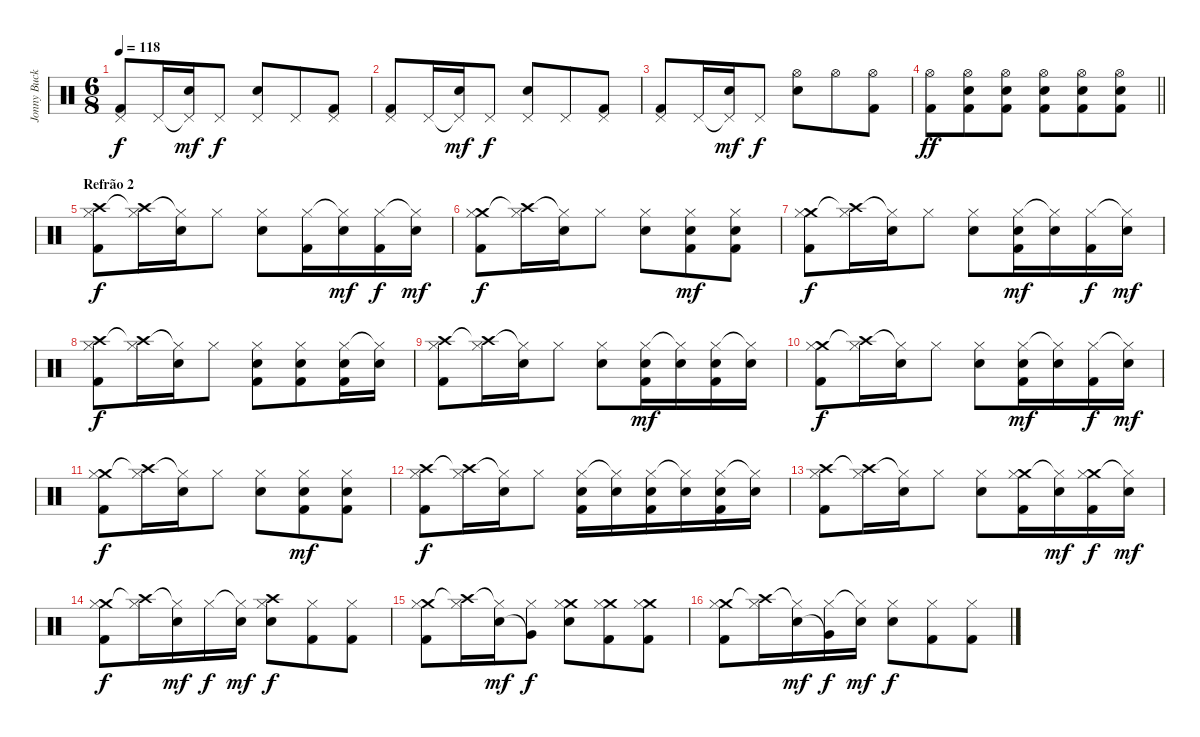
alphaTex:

\track ("Jonny Buckland (batera)" "Jonny Buck") {instrument percussion}
\staff {score}
\articulation defaults
\ts (6 8)
\tempo 118
\clef neutral
\ks c
("Pedal Hi-Hat (hit)" "Kick (hit) 2").8{dy f} "Pedal Hi-Hat (hit)".16 ("Pedal Hi-Hat (hit)"{t} "Snare (hit) 2").16{dy mf} "Pedal Hi-Hat (hit)".8{dy f} ("Pedal Hi-Hat (hit)" "Electric Snare (hit)").8 "Pedal Hi-Hat (hit)".8 ("Pedal Hi-Hat (hit)" "Kick (hit) 2").8 |
("Pedal Hi-Hat (hit)" "Kick (hit) 2").8 "Pedal Hi-Hat (hit)".16 ("Pedal Hi-Hat (hit)"{t} "Snare (hit) 2").16{dy mf} "Pedal Hi-Hat (hit)".8{dy f} ("Pedal Hi-Hat (hit)" "Electric Snare (hit)").8 "Pedal Hi-Hat (hit)".8 ("Pedal Hi-Hat (hit)" "Kick (hit) 2").8 |
("Pedal Hi-Hat (hit)" "Kick (hit) 2").8 "Pedal Hi-Hat (hit)".16 ("Pedal Hi-Hat (hit)"{t} "Snare (hit) 2").16{dy mf} "Pedal Hi-Hat (hit)".8{dy f} ("Hi-Hat (open)" "Electric Snare (hit)").8 "Hi-Hat (open)".8 ("Hi-Hat (open)" "Kick (hit) 2").8 |
\barLineRight lightlight
("Hi-Hat (open)" "Kick (hit) 2").8{dy ff} ("Hi-Hat (open)" "Electric Snare (hit)" "Kick (hit) 2").8 ("Hi-Hat (open)" "Electric Snare (hit)" "Kick (hit) 2").8 ("Hi-Hat (open)" "Electric Snare (hit)" "Kick (hit) 2").8 ("Hi-Hat (open)" "Electric Snare (hit)" "Kick (hit) 2").8 ("Hi-Hat (open)" "Electric Snare (hit)" "Kick (hit) 2").8 |
\section ("" "Refrão 2")
("Crash high (hit)" "Hi-Hat (closed)" "Kick (hit) 2").8{dy f} ("Crash high (hit)"{t} "Hi-Hat (closed)").16 ("Hi-Hat (closed)"{t} "Electric Snare (hit)").16 "Hi-Hat (closed)".8 ("Hi-Hat (closed)" "Electric Snare (hit)").8 ("Hi-Hat (closed)" "Kick (hit) 2").16 ("Hi-Hat (closed)"{t} "Snare (hit) 2").16{dy mf} ("Hi-Hat (closed)" "Kick (hit) 2").16{dy f} ("Hi-Hat (closed)"{t} "Snare (hit) 2").16{dy mf} |
("Crash medium (hit)" "Hi-Hat (closed)" "Kick (hit) 2").8{dy f} ("Crash high (hit)"{t} "Hi-Hat (closed)").16 ("Hi-Hat (closed)"{t} "Electric Snare (hit)").16 "Hi-Hat (closed)".8 ("Hi-Hat (closed)" "Electric Snare (hit)").8 ("Hi-Hat (closed)" "Snare (hit) 2" "Kick (hit) 2").8{dy mf} ("Hi-Hat (closed)" "Snare (hit) 2" "Kick (hit) 2").8 |
("Crash medium (hit)" "Hi-Hat (closed)" "Kick (hit) 2").8{dy f} ("Crash high (hit)"{t} "Hi-Hat (closed)").16 ("Hi-Hat (closed)"{t} "Electric Snare (hit)").16 "Hi-Hat (closed)".8 ("Hi-Hat (closed)" "Electric Snare (hit)").8 ("Hi-Hat (closed)" "Snare (hit) 2" "Kick (hit) 2").16{dy mf} ("Hi-Hat (closed)"{t} "Snare (hit) 2").16 ("Hi-Hat (closed)" "Kick (hit) 2").16{dy f} ("Hi-Hat (closed)"{t} "Snare (hit) 2").16{dy mf} |
("Crash high (hit)" "Hi-Hat (closed)" "Kick (hit) 2").8{dy f} ("Crash high (hit)"{t} "Hi-Hat (closed)").16 ("Hi-Hat (closed)"{t} "Electric Snare (hit)").16 "Hi-Hat (closed)".8 ("Hi-Hat (closed)" "Electric Snare (hit)" "Kick (hit) 2").8 ("Hi-Hat (closed)" "Electric Snare (hit)" "Kick (hit) 2").8 ("Hi-Hat (closed)" "Electric Snare (hit)" "Kick (hit) 2").16 ("Hi-Hat (closed)"{t} "Electric Snare (hit)").16 |
("Crash high (hit)" "Hi-Hat (closed)" "Kick (hit) 2").8 ("Crash high (hit)"{t} "Hi-Hat (closed)").16 ("Hi-Hat (closed)"{t} "Electric Snare (hit)").16 "Hi-Hat (closed)".8 ("Hi-Hat (closed)" "Electric Snare (hit)").8 ("Hi-Hat (closed)" "Snare (hit) 2" "Kick (hit) 2").16{dy mf} ("Hi-Hat (closed)"{t} "Snare (hit) 2").16 ("Hi-Hat (closed)" "Snare (hit) 2" "Kick (hit) 2").16 ("Hi-Hat (closed)"{t} "Snare (hit) 2").16 |
("Crash medium (hit)" "Hi-Hat (closed)" "Kick (hit) 2").8{dy f} ("Crash high (hit)"{t} "Hi-Hat (closed)").16 ("Hi-Hat (closed)"{t} "Electric Snare (hit)").16 "Hi-Hat (closed)".8 ("Hi-Hat (closed)" "Electric Snare (hit)").8 ("Hi-Hat (closed)" "Snare (hit) 2" "Kick (hit) 2").16{dy mf} ("Hi-Hat (closed)"{t} "Snare (hit) 2").16 ("Hi-Hat (closed)" "Kick (hit) 2").16{dy f} ("Hi-Hat (closed)"{t} "Snare (hit) 2").16{dy mf} |
("Crash medium (hit)" "Hi-Hat (closed)" "Kick (hit) 2").8{dy f} ("Crash high (hit)"{t} "Hi-Hat (closed)").16 ("Hi-Hat (closed)"{t} "Electric Snare (hit)").16 "Hi-Hat (closed)".8 ("Hi-Hat (closed)" "Electric Snare (hit)").8 ("Hi-Hat (closed)" "Snare (hit) 2" "Kick (hit) 2").8{dy mf} ("Hi-Hat (closed)" "Snare (hit) 2" "Kick (hit) 2").8 |
("Crash high (hit)" "Hi-Hat (closed)" "Kick (hit) 2").8{dy f} ("Crash high (hit)"{t} "Hi-Hat (closed)").16 ("Hi-Hat (closed)"{t} "Electric Snare (hit)").16 "Hi-Hat (closed)".8 ("Hi-Hat (closed)" "Electric Snare (hit)" "Kick (hit) 2").16 ("Hi-Hat (closed)"{t} "Electric Snare (hit)").16 ("Hi-Hat (closed)" "Electric Snare (hit)" "Kick (hit) 2").16 ("Hi-Hat (closed)"{t} "Electric Snare (hit)").16 ("Hi-Hat (closed)" "Snare (hit) 2" "Kick (hit) 2").16 ("Hi-Hat (closed)"{t} "Snare (hit) 2").16 |
("Crash high (hit)" "Hi-Hat (closed)" "Kick (hit) 2").8 ("Crash high (hit)"{t} "Hi-Hat (closed)").16 ("Hi-Hat (closed)"{t} "Electric Snare (hit)").16 "Hi-Hat (closed)".8 ("Hi-Hat (closed)" "Electric Snare (hit)").8 ("Crash medium (hit)" "Hi-Hat (closed)" "Kick (hit) 2").16 ("Hi-Hat (closed)"{t} "Snare (hit) 2").16{dy mf} ("Crash medium (hit)" "Hi-Hat (closed)" "Kick (hit) 2").16{dy f} ("Hi-Hat (closed)"{t} "Snare (hit) 2").16{dy mf} |
("Crash medium (hit)" "Hi-Hat (closed)" "Kick (hit) 2").8{dy f} ("Crash high (hit)"{t} "Hi-Hat (closed)").16 ("Hi-Hat (closed)"{t} "Snare (hit) 2").16{dy mf} "Hi-Hat (closed)".16{dy f} ("Hi-Hat (closed)"{t} "Snare (hit) 2").16{dy mf} ("Crash high (hit)" "Hi-Hat (closed)" "Electric Snare (hit)").8{dy f} ("Hi-Hat (closed)" "Kick (hit) 2").8 ("Hi-Hat (closed)" "Kick (hit) 2").8 |
("Crash medium (hit)" "Hi-Hat (closed)" "Kick (hit) 2").8 ("Crash high (hit)"{t} "Hi-Hat (closed)").16 ("Hi-Hat (closed)"{t} "Snare (hit) 2").16{dy mf} ("Hi-Hat (closed)" "Very Low Tom (hit)"{t}).8{dy f} ("Crash medium (hit)" "Hi-Hat (closed)" "Electric Snare (hit)").8 ("Crash medium (hit)" "Hi-Hat (closed)" "Kick (hit) 2").8 ("Crash medium (hit)" "Hi-Hat (closed)" "Kick (hit) 2").8 |
("Crash medium (hit)" "Hi-Hat (closed)" "Kick (hit) 2").8 ("Crash high (hit)"{t} "Hi-Hat (closed)").16 ("Hi-Hat (closed)"{t} "Snare (hit) 2").16{dy mf} ("Hi-Hat (closed)" "Very Low Tom (hit)"{t}).16{dy f} ("Hi-Hat (closed)"{t} "Snare (hit) 2").16{dy mf} ("Hi-Hat (closed)" "Electric Snare (hit)").8{dy f} ("Hi-Hat (closed)" "Kick (hit) 2").8 ("Hi-Hat (closed)" "Kick (hit) 2").8
